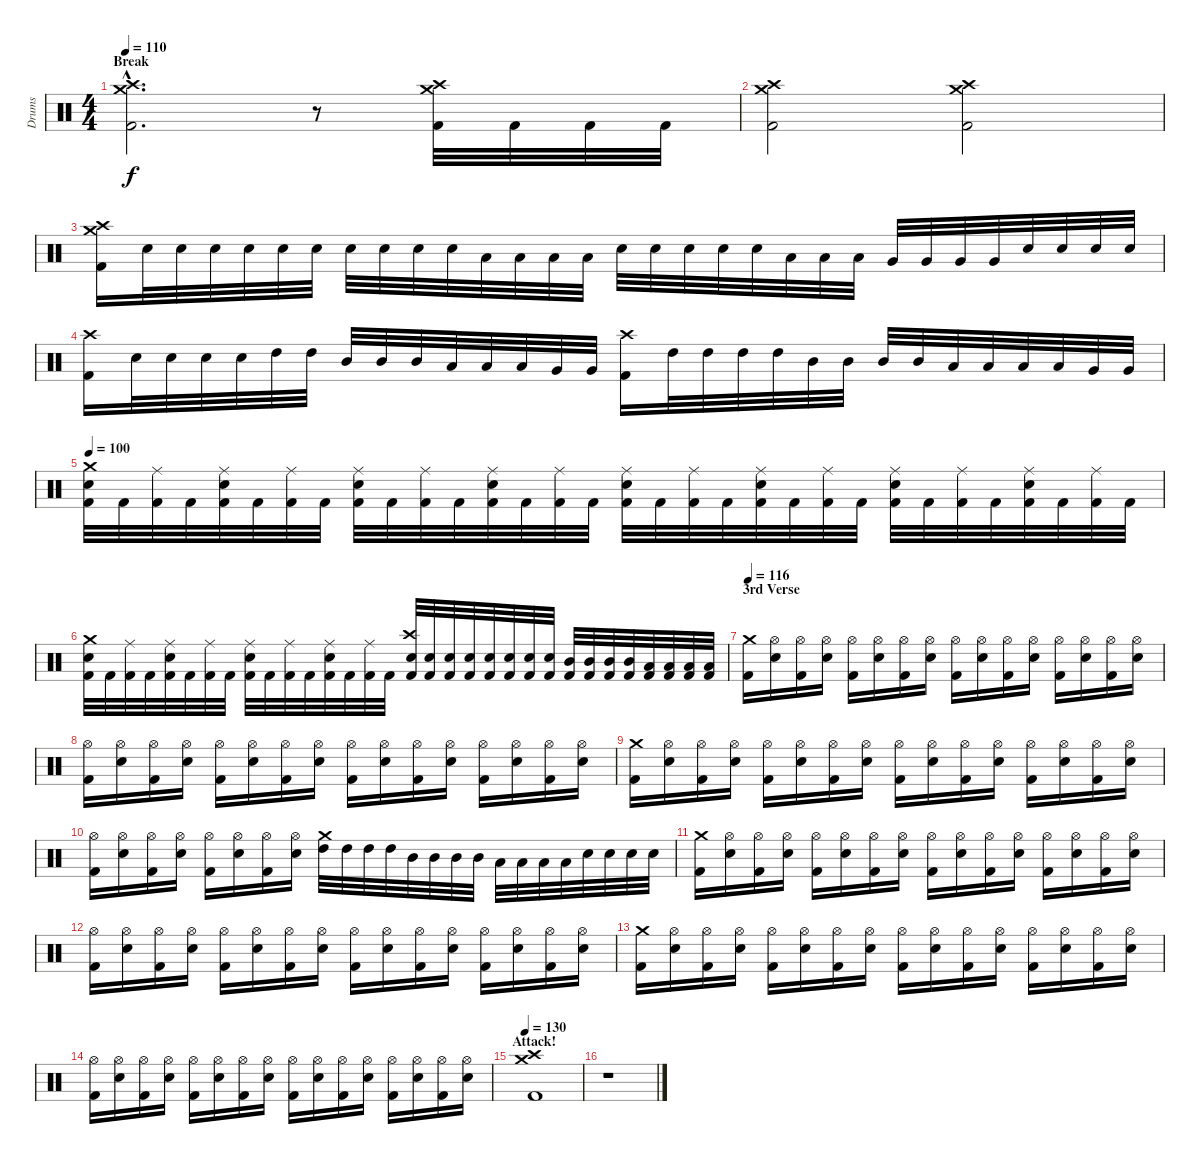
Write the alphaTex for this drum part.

\track ("Drums" "Drums") {instrument percussion}
\staff {score}
\articulation defaults
\ts (4 4)
\section ("" "Break")
\tempo 110
\clef neutral
\ks c
("Kick (hit) 2"{hac} "Crash high (hit)"{hac} "Crash medium (hit)"{hac}).2{d dy f} r.8 ("Kick (hit) 2" "Crash high (hit)" "Crash medium (hit)").32 "Kick (hit) 2".32 "Kick (hit) 2".32 "Kick (hit) 2".32 |
("Kick (hit) 2" "Crash high (hit)" "Crash medium (hit)").2 ("Kick (hit) 2" "Crash high (hit)" "Crash medium (hit)").2 |
("Kick (hit) 2" "Crash high (hit)" "Crash medium (hit)").16 "Electric Snare (hit)".32 "Electric Snare (hit)".32 "Electric Snare (hit)".32 "Electric Snare (hit)".32 "Electric Snare (hit)".32 "Electric Snare (hit)".32 "Electric Snare (hit)".32 "Electric Snare (hit)".32 "Electric Snare (hit)".32 "Electric Snare (hit)".32 "Low Tom (hit)".32 "Low Tom (hit)".32 "Low Tom (hit)".32 "Low Tom (hit)".32 "Electric Snare (hit)".32 "Electric Snare (hit)".32 "Electric Snare (hit)".32 "Electric Snare (hit)".32 "Electric Snare (hit)".32 "Low Tom (hit)".32 "Low Tom (hit)".32 "Low Tom (hit)".32 "Very Low Tom (hit)".32 "Very Low Tom (hit)".32 "Very Low Tom (hit)".32 "Very Low Tom (hit)".32 "Electric Snare (hit)".32 "Electric Snare (hit)".32 "Electric Snare (hit)".32 "Electric Snare (hit)".32 |
("Kick (hit) 2" "Crash high (hit)").16 "Electric Snare (hit)".32 "Electric Snare (hit)".32 "Electric Snare (hit)".32 "Electric Snare (hit)".32 "High Tom (hit)".32 "High Tom (hit)".32 "Mid Tom (hit)".32 "Mid Tom (hit)".32 "Mid Tom (hit)".32 "Low Tom (hit)".32 "Low Tom (hit)".32 "Low Tom (hit)".32 "Very Low Tom (hit)".32 "Very Low Tom (hit)".32 ("Kick (hit) 2" "Crash high (hit)").16 "High Tom (hit)".32 "High Tom (hit)".32 "High Tom (hit)".32 "High Tom (hit)".32 "Mid Tom (hit)".32 "Mid Tom (hit)".32 "Mid Tom (hit)".32 "Mid Tom (hit)".32 "Low Tom (hit)".32 "Low Tom (hit)".32 "Low Tom (hit)".32 "Low Tom (hit)".32 "Very Low Tom (hit)".32 "Very Low Tom (hit)".32 |
\tempo 100
("Kick (hit) 2" "Electric Snare (hit)" "Crash medium (hit)").32 "Kick (hit) 2".32 ("Kick (hit) 2" "Ride (middle)").32 "Kick (hit) 2".32 ("Kick (hit) 2" "Electric Snare (hit)" "Ride (middle)").32 "Kick (hit) 2".32 ("Kick (hit) 2" "Ride (middle)").32 "Kick (hit) 2".32 ("Kick (hit) 2" "Electric Snare (hit)" "Ride (middle)").32 "Kick (hit) 2".32 ("Kick (hit) 2" "Ride (middle)").32 "Kick (hit) 2".32 ("Kick (hit) 2" "Electric Snare (hit)" "Ride (middle)").32 "Kick (hit) 2".32 ("Kick (hit) 2" "Ride (middle)").32 "Kick (hit) 2".32 ("Kick (hit) 2" "Electric Snare (hit)" "Ride (middle)").32 "Kick (hit) 2".32 ("Kick (hit) 2" "Ride (middle)").32 "Kick (hit) 2".32 ("Kick (hit) 2" "Electric Snare (hit)" "Ride (middle)").32 "Kick (hit) 2".32 ("Kick (hit) 2" "Ride (middle)").32 "Kick (hit) 2".32 ("Kick (hit) 2" "Electric Snare (hit)" "Ride (middle)").32 "Kick (hit) 2".32 ("Kick (hit) 2" "Ride (middle)").32 "Kick (hit) 2".32 ("Kick (hit) 2" "Electric Snare (hit)" "Ride (middle)").32 "Kick (hit) 2".32 ("Kick (hit) 2" "Ride (middle)").32 "Kick (hit) 2".32 |
("Kick (hit) 2" "Electric Snare (hit)" "Crash medium (hit)").32 "Kick (hit) 2".32 ("Kick (hit) 2" "Ride (middle)").32 "Kick (hit) 2".32 ("Kick (hit) 2" "Electric Snare (hit)" "Ride (middle)").32 "Kick (hit) 2".32 ("Kick (hit) 2" "Ride (middle)").32 "Kick (hit) 2".32 ("Kick (hit) 2" "Electric Snare (hit)" "Ride (middle)").32 "Kick (hit) 2".32 ("Kick (hit) 2" "Ride (middle)").32 "Kick (hit) 2".32 ("Kick (hit) 2" "Electric Snare (hit)" "Ride (middle)").32 "Kick (hit) 2".32 ("Kick (hit) 2" "Ride (middle)").32 "Kick (hit) 2".32 ("Kick (hit) 2" "Electric Snare (hit)" "Crash high (hit)").32 ("Kick (hit) 2" "Electric Snare (hit)").32 ("Kick (hit) 2" "Electric Snare (hit)").32 ("Kick (hit) 2" "Electric Snare (hit)").32 ("Kick (hit) 2" "Electric Snare (hit)").32 ("Kick (hit) 2" "Electric Snare (hit)").32 ("Kick (hit) 2" "Electric Snare (hit)").32 ("Kick (hit) 2" "Electric Snare (hit)").32 ("Kick (hit) 2" "Mid Tom (hit)").32 ("Kick (hit) 2" "Mid Tom (hit)").32 ("Kick (hit) 2" "Mid Tom (hit)").32 ("Kick (hit) 2" "Mid Tom (hit)").32 ("Kick (hit) 2" "Low Tom (hit)").32 ("Kick (hit) 2" "Low Tom (hit)").32 ("Kick (hit) 2" "Low Tom (hit)").32 ("Kick (hit) 2" "Low Tom (hit)").32 |
\section ("" "3rd Verse")
\tempo 116
("Kick (hit) 2" "Crash medium (hit)").16 ("Electric Snare (hit)" "Hi-Hat (open)").16 ("Kick (hit) 2" "Hi-Hat (open)").16 ("Electric Snare (hit)" "Hi-Hat (open)").16 ("Kick (hit) 2" "Hi-Hat (open)").16 ("Electric Snare (hit)" "Hi-Hat (open)").16 ("Kick (hit) 2" "Hi-Hat (open)").16 ("Electric Snare (hit)" "Hi-Hat (open)").16 ("Kick (hit) 2" "Hi-Hat (open)").16 ("Electric Snare (hit)" "Hi-Hat (open)").16 ("Kick (hit) 2" "Hi-Hat (open)").16 ("Electric Snare (hit)" "Hi-Hat (open)").16 ("Kick (hit) 2" "Hi-Hat (open)").16 ("Electric Snare (hit)" "Hi-Hat (open)").16 ("Kick (hit) 2" "Hi-Hat (open)").16 ("Electric Snare (hit)" "Hi-Hat (open)").16 |
("Kick (hit) 2" "Hi-Hat (open)").16 ("Electric Snare (hit)" "Hi-Hat (open)").16 ("Kick (hit) 2" "Hi-Hat (open)").16 ("Electric Snare (hit)" "Hi-Hat (open)").16 ("Kick (hit) 2" "Hi-Hat (open)").16 ("Electric Snare (hit)" "Hi-Hat (open)").16 ("Kick (hit) 2" "Hi-Hat (open)").16 ("Electric Snare (hit)" "Hi-Hat (open)").16 ("Kick (hit) 2" "Hi-Hat (open)").16 ("Electric Snare (hit)" "Hi-Hat (open)").16 ("Kick (hit) 2" "Hi-Hat (open)").16 ("Electric Snare (hit)" "Hi-Hat (open)").16 ("Kick (hit) 2" "Hi-Hat (open)").16 ("Electric Snare (hit)" "Hi-Hat (open)").16 ("Kick (hit) 2" "Hi-Hat (open)").16 ("Electric Snare (hit)" "Hi-Hat (open)").16 |
("Kick (hit) 2" "Crash medium (hit)").16 ("Electric Snare (hit)" "Hi-Hat (open)").16 ("Kick (hit) 2" "Hi-Hat (open)").16 ("Electric Snare (hit)" "Hi-Hat (open)").16 ("Kick (hit) 2" "Hi-Hat (open)").16 ("Electric Snare (hit)" "Hi-Hat (open)").16 ("Kick (hit) 2" "Hi-Hat (open)").16 ("Electric Snare (hit)" "Hi-Hat (open)").16 ("Kick (hit) 2" "Hi-Hat (open)").16 ("Electric Snare (hit)" "Hi-Hat (open)").16 ("Kick (hit) 2" "Hi-Hat (open)").16 ("Electric Snare (hit)" "Hi-Hat (open)").16 ("Kick (hit) 2" "Hi-Hat (open)").16 ("Electric Snare (hit)" "Hi-Hat (open)").16 ("Kick (hit) 2" "Hi-Hat (open)").16 ("Electric Snare (hit)" "Hi-Hat (open)").16 |
("Kick (hit) 2" "Hi-Hat (open)").16 ("Electric Snare (hit)" "Hi-Hat (open)").16 ("Kick (hit) 2" "Hi-Hat (open)").16 ("Electric Snare (hit)" "Hi-Hat (open)").16 ("Kick (hit) 2" "Hi-Hat (open)").16 ("Electric Snare (hit)" "Hi-Hat (open)").16 ("Kick (hit) 2" "Hi-Hat (open)").16 ("Electric Snare (hit)" "Hi-Hat (open)").16 ("High Tom (hit)" "Crash medium (hit)").32 "High Tom (hit)".32 "High Tom (hit)".32 "High Tom (hit)".32 "Mid Tom (hit)".32 "Mid Tom (hit)".32 "Mid Tom (hit)".32 "Mid Tom (hit)".32 "Low Tom (hit)".32 "Low Tom (hit)".32 "Low Tom (hit)".32 "Low Tom (hit)".32 "Electric Snare (hit)".32 "Electric Snare (hit)".32 "Electric Snare (hit)".32 "Electric Snare (hit)".32 |
("Kick (hit) 2" "Crash medium (hit)").16 ("Electric Snare (hit)" "Hi-Hat (open)").16 ("Kick (hit) 2" "Hi-Hat (open)").16 ("Electric Snare (hit)" "Hi-Hat (open)").16 ("Kick (hit) 2" "Hi-Hat (open)").16 ("Electric Snare (hit)" "Hi-Hat (open)").16 ("Kick (hit) 2" "Hi-Hat (open)").16 ("Electric Snare (hit)" "Hi-Hat (open)").16 ("Kick (hit) 2" "Hi-Hat (open)").16 ("Electric Snare (hit)" "Hi-Hat (open)").16 ("Kick (hit) 2" "Hi-Hat (open)").16 ("Electric Snare (hit)" "Hi-Hat (open)").16 ("Kick (hit) 2" "Hi-Hat (open)").16 ("Electric Snare (hit)" "Hi-Hat (open)").16 ("Kick (hit) 2" "Hi-Hat (open)").16 ("Electric Snare (hit)" "Hi-Hat (open)").16 |
("Kick (hit) 2" "Hi-Hat (open)").16 ("Electric Snare (hit)" "Hi-Hat (open)").16 ("Kick (hit) 2" "Hi-Hat (open)").16 ("Electric Snare (hit)" "Hi-Hat (open)").16 ("Kick (hit) 2" "Hi-Hat (open)").16 ("Electric Snare (hit)" "Hi-Hat (open)").16 ("Kick (hit) 2" "Hi-Hat (open)").16 ("Electric Snare (hit)" "Hi-Hat (open)").16 ("Kick (hit) 2" "Hi-Hat (open)").16 ("Electric Snare (hit)" "Hi-Hat (open)").16 ("Kick (hit) 2" "Hi-Hat (open)").16 ("Electric Snare (hit)" "Hi-Hat (open)").16 ("Kick (hit) 2" "Hi-Hat (open)").16 ("Electric Snare (hit)" "Hi-Hat (open)").16 ("Kick (hit) 2" "Hi-Hat (open)").16 ("Electric Snare (hit)" "Hi-Hat (open)").16 |
("Kick (hit) 2" "Crash medium (hit)").16 ("Electric Snare (hit)" "Hi-Hat (open)").16 ("Kick (hit) 2" "Hi-Hat (open)").16 ("Electric Snare (hit)" "Hi-Hat (open)").16 ("Kick (hit) 2" "Hi-Hat (open)").16 ("Electric Snare (hit)" "Hi-Hat (open)").16 ("Kick (hit) 2" "Hi-Hat (open)").16 ("Electric Snare (hit)" "Hi-Hat (open)").16 ("Kick (hit) 2" "Hi-Hat (open)").16 ("Electric Snare (hit)" "Hi-Hat (open)").16 ("Kick (hit) 2" "Hi-Hat (open)").16 ("Electric Snare (hit)" "Hi-Hat (open)").16 ("Kick (hit) 2" "Hi-Hat (open)").16 ("Electric Snare (hit)" "Hi-Hat (open)").16 ("Kick (hit) 2" "Hi-Hat (open)").16 ("Electric Snare (hit)" "Hi-Hat (open)").16 |
("Kick (hit) 2" "Hi-Hat (open)").16 ("Electric Snare (hit)" "Hi-Hat (open)").16 ("Kick (hit) 2" "Hi-Hat (open)").16 ("Electric Snare (hit)" "Hi-Hat (open)").16 ("Kick (hit) 2" "Hi-Hat (open)").16 ("Electric Snare (hit)" "Hi-Hat (open)").16 ("Kick (hit) 2" "Hi-Hat (open)").16 ("Electric Snare (hit)" "Hi-Hat (open)").16 ("Kick (hit) 2" "Hi-Hat (open)").16 ("Electric Snare (hit)" "Hi-Hat (open)").16 ("Kick (hit) 2" "Hi-Hat (open)").16 ("Electric Snare (hit)" "Hi-Hat (open)").16 ("Kick (hit) 2" "Hi-Hat (open)").16 ("Electric Snare (hit)" "Hi-Hat (open)").16 ("Kick (hit) 2" "Hi-Hat (open)").16 ("Electric Snare (hit)" "Hi-Hat (open)").16 |
\section ("" "Attack!")
\tempo 130
("Kick (hit) 2" "Crash high (hit)" "Crash medium (hit)").1 |
r.1
